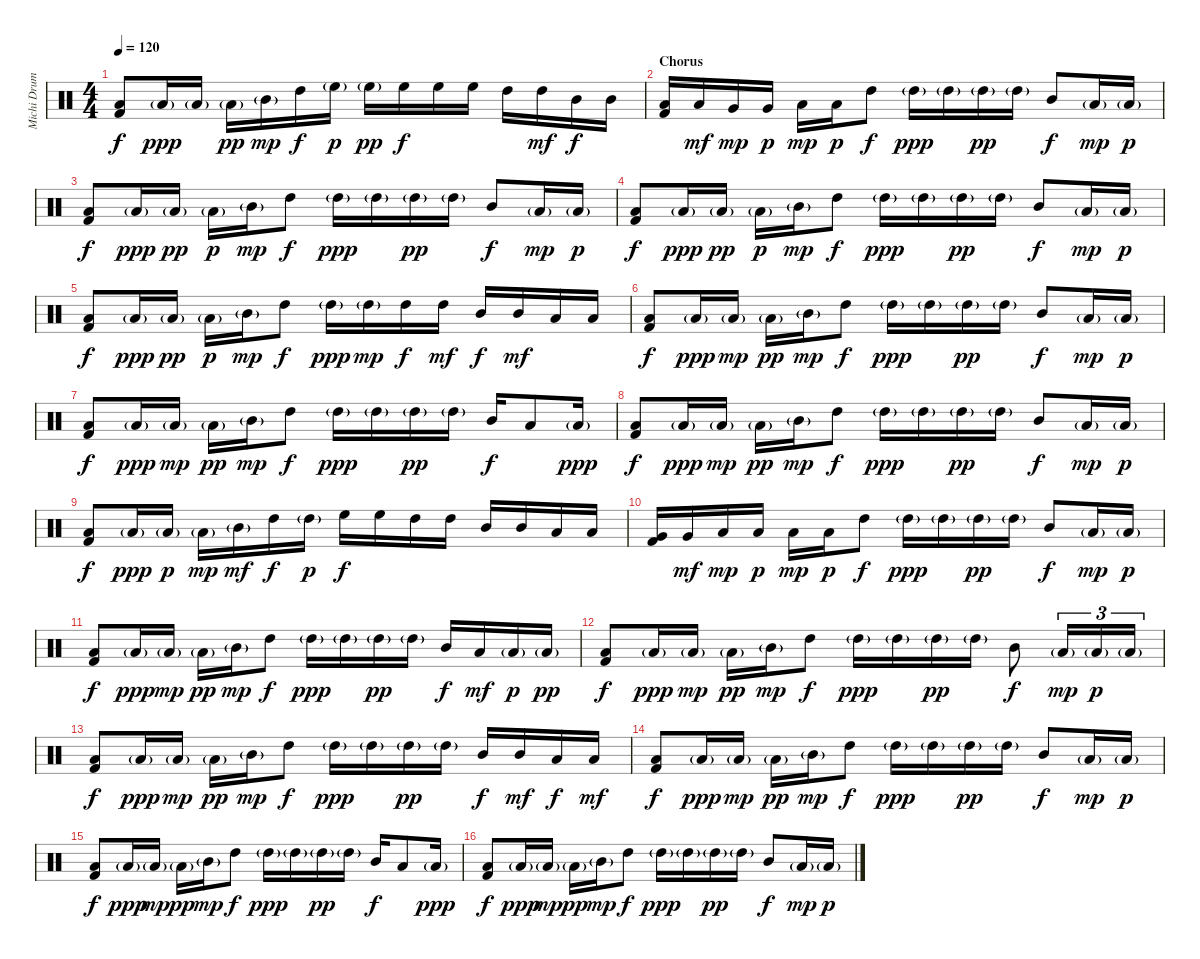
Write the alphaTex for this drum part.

\track ("Michi Drums" "Michi Drum") {instrument percussion}
\staff {score}
\articulation defaults
\ts (4 4)
\tempo 120
\clef neutral
\ks c
("Low Floor Tom (hit)" "Kick (hit) 2").8{dy f} "Low Floor Tom (hit)"{g}.16{dy ppp} "Low Tom (hit)"{g}.16 "Low Tom (hit)"{g}.16{dy pp} "Mid Tom (hit)"{g}.16{dy mp} "High Tom (hit)".16{dy f} "High Floor Tom (hit)"{g}.16{dy p} "High Floor Tom (hit)"{g}.16{dy pp} "High Floor Tom (hit)".16{dy f} "High Floor Tom (hit)".16 "High Floor Tom (hit)".16 "High Tom (hit)".16 "High Tom (hit)".16{dy mf} "Mid Tom (hit)".16{dy f} "Mid Tom (hit)".16 |
\section ("" "Chorus")
("Low Tom (hit)" "Kick (hit) 2").16 "Low Tom (hit)".16{dy mf} "Very Low Tom (hit)".16{dy mp} "Very Low Tom (hit)".16{dy p} "Low Floor Tom (hit)".16{dy mp} "Low Floor Tom (hit)".16{dy p} "High Tom (hit)".8{dy f} "High Tom (hit)"{g}.16{dy ppp} "High Tom (hit)"{g}.16 "High Tom (hit)"{g}.16{dy pp} "High Tom (hit)"{g}.16 "Mid Tom (hit)".8{dy f} "Low Tom (hit)"{g}.16{dy mp} "Low Tom (hit)"{g}.16{dy p} |
("Low Floor Tom (hit)" "Kick (hit) 2").8{dy f} "Low Floor Tom (hit)"{g}.16{dy ppp} "Low Tom (hit)"{g}.16{dy pp} "Low Tom (hit)"{g}.16{dy p} "Mid Tom (hit)"{g}.16{dy mp} "High Tom (hit)".8{dy f} "High Tom (hit)"{g}.16{dy ppp} "High Tom (hit)"{g}.16 "High Tom (hit)"{g}.16{dy pp} "High Tom (hit)"{g}.16 "Mid Tom (hit)".8{dy f} "Low Tom (hit)"{g}.16{dy mp} "Low Tom (hit)"{g}.16{dy p} |
("Low Floor Tom (hit)" "Kick (hit) 2").8{dy f} "Low Floor Tom (hit)"{g}.16{dy ppp} "Low Tom (hit)"{g}.16{dy pp} "Low Tom (hit)"{g}.16{dy p} "Mid Tom (hit)"{g}.16{dy mp} "High Tom (hit)".8{dy f} "High Tom (hit)"{g}.16{dy ppp} "High Tom (hit)"{g}.16 "High Tom (hit)"{g}.16{dy pp} "High Tom (hit)"{g}.16 "Mid Tom (hit)".8{dy f} "Low Tom (hit)"{g}.16{dy mp} "Low Tom (hit)"{g}.16{dy p} |
("Low Floor Tom (hit)" "Kick (hit) 2").8{dy f} "Low Floor Tom (hit)"{g}.16{dy ppp} "Low Tom (hit)"{g}.16{dy pp} "Low Tom (hit)"{g}.16{dy p} "Mid Tom (hit)"{g}.16{dy mp} "High Tom (hit)".8{dy f} "High Tom (hit)"{g}.16{dy ppp} "High Tom (hit)"{g}.16{dy mp} "High Tom (hit)".16{dy f} "High Tom (hit)".16{dy mf} "Mid Tom (hit)".16{dy f} "Mid Tom (hit)".16{dy mf} "Low Tom (hit)".16 "Low Tom (hit)".16 |
("Low Floor Tom (hit)" "Kick (hit) 2").8{dy f} "Low Floor Tom (hit)"{g}.16{dy ppp} "Low Tom (hit)"{g}.16{dy mp} "Low Tom (hit)"{g}.16{dy pp} "Mid Tom (hit)"{g}.16{dy mp} "High Tom (hit)".8{dy f} "High Tom (hit)"{g}.16{dy ppp} "High Tom (hit)"{g}.16 "High Tom (hit)"{g}.16{dy pp} "High Tom (hit)"{g}.16 "Mid Tom (hit)".8{dy f} "Low Tom (hit)"{g}.16{dy mp} "Low Tom (hit)"{g}.16{dy p} |
("Low Floor Tom (hit)" "Kick (hit) 2").8{dy f} "Low Floor Tom (hit)"{g}.16{dy ppp} "Low Tom (hit)"{g}.16{dy mp} "Low Tom (hit)"{g}.16{dy pp} "Mid Tom (hit)"{g}.16{dy mp} "High Tom (hit)".8{dy f} "High Tom (hit)"{g}.16{dy ppp} "High Tom (hit)"{g}.16 "High Tom (hit)"{g}.16{dy pp} "High Tom (hit)"{g}.16 "Mid Tom (hit)".16{dy f} "Low Floor Tom (hit)".8 "Low Floor Tom (hit)"{g}.16{dy ppp} |
("Low Floor Tom (hit)" "Kick (hit) 2").8{dy f} "Low Floor Tom (hit)"{g}.16{dy ppp} "Low Tom (hit)"{g}.16{dy mp} "Low Tom (hit)"{g}.16{dy pp} "Mid Tom (hit)"{g}.16{dy mp} "High Tom (hit)".8{dy f} "High Tom (hit)"{g}.16{dy ppp} "High Tom (hit)"{g}.16 "High Tom (hit)"{g}.16{dy pp} "High Tom (hit)"{g}.16 "Mid Tom (hit)".8{dy f} "Low Tom (hit)"{g}.16{dy mp} "Low Tom (hit)"{g}.16{dy p} |
("Low Floor Tom (hit)" "Kick (hit) 2").8{dy f} "Low Floor Tom (hit)"{g}.16{dy ppp} "Low Tom (hit)"{g}.16{dy p} "Low Tom (hit)"{g}.16{dy mp} "Mid Tom (hit)"{g}.16{dy mf} "High Tom (hit)".16{dy f} "High Tom (hit)"{g}.16{dy p} "High Floor Tom (hit)".16{dy f} "High Floor Tom (hit)".16 "High Tom (hit)".16 "High Tom (hit)".16 "Mid Tom (hit)".16 "Mid Tom (hit)".16 "Low Tom (hit)".16 "Low Tom (hit)".16 |
("Very Low Tom (hit)" "Kick (hit) 2").16 "Very Low Tom (hit)".16{dy mf} "Low Floor Tom (hit)".16{dy mp} "Low Floor Tom (hit)".16{dy p} "Low Floor Tom (hit)".16{dy mp} "Low Floor Tom (hit)".16{dy p} "High Tom (hit)".8{dy f} "High Tom (hit)"{g}.16{dy ppp} "High Tom (hit)"{g}.16 "High Tom (hit)"{g}.16{dy pp} "High Tom (hit)"{g}.16 "Mid Tom (hit)".8{dy f} "Low Tom (hit)"{g}.16{dy mp} "Low Tom (hit)"{g}.16{dy p} |
("Low Floor Tom (hit)" "Kick (hit) 2").8{dy f} "Low Floor Tom (hit)"{g}.16{dy ppp} "Low Tom (hit)"{g}.16{dy mp} "Low Tom (hit)"{g}.16{dy pp} "Mid Tom (hit)"{g}.16{dy mp} "High Tom (hit)".8{dy f} "High Tom (hit)"{g}.16{dy ppp} "High Tom (hit)"{g}.16 "High Tom (hit)"{g}.16{dy pp} "High Tom (hit)"{g}.16 "Mid Tom (hit)".16{dy f} "Low Tom (hit)".16{dy mf} "Low Tom (hit)"{g}.16{dy p} "Low Tom (hit)"{g}.16{dy pp} |
("Low Floor Tom (hit)" "Kick (hit) 2").8{dy f} "Low Floor Tom (hit)"{g}.16{dy ppp} "Low Tom (hit)"{g}.16{dy mp} "Low Tom (hit)"{g}.16{dy pp} "Mid Tom (hit)"{g}.16{dy mp} "High Tom (hit)".8{dy f} "High Tom (hit)"{g}.16{dy ppp} "High Tom (hit)"{g}.16 "High Tom (hit)"{g}.16{dy pp} "High Tom (hit)"{g}.16 "Mid Tom (hit)".8{dy f} "Low Tom (hit)"{g}.16{tu (3 2) dy mp} "Low Tom (hit)"{g}.16{tu (3 2) dy p} "Low Tom (hit)"{g}.16{tu (3 2)} |
("Low Floor Tom (hit)" "Kick (hit) 2").8{dy f} "Low Floor Tom (hit)"{g}.16{dy ppp} "Low Tom (hit)"{g}.16{dy mp} "Low Tom (hit)"{g}.16{dy pp} "Mid Tom (hit)"{g}.16{dy mp} "High Tom (hit)".8{dy f} "High Tom (hit)"{g}.16{dy ppp} "High Tom (hit)"{g}.16 "High Tom (hit)"{g}.16{dy pp} "High Tom (hit)"{g}.16 "Mid Tom (hit)".16{dy f} "Mid Tom (hit)".16{dy mf} "Low Tom (hit)".16{dy f} "Low Tom (hit)".16{dy mf} |
("Low Floor Tom (hit)" "Kick (hit) 2").8{dy f} "Low Floor Tom (hit)"{g}.16{dy ppp} "Low Tom (hit)"{g}.16{dy mp} "Low Tom (hit)"{g}.16{dy pp} "Mid Tom (hit)"{g}.16{dy mp} "High Tom (hit)".8{dy f} "High Tom (hit)"{g}.16{dy ppp} "High Tom (hit)"{g}.16 "High Tom (hit)"{g}.16{dy pp} "High Tom (hit)"{g}.16 "Mid Tom (hit)".8{dy f} "Low Tom (hit)"{g}.16{dy mp} "Low Tom (hit)"{g}.16{dy p} |
("Low Floor Tom (hit)" "Kick (hit) 2").8{dy f} "Low Floor Tom (hit)"{g}.16{dy ppp} "Low Tom (hit)"{g}.16{dy mp} "Low Tom (hit)"{g}.16{dy pp} "Mid Tom (hit)"{g}.16{dy mp} "High Tom (hit)".8{dy f} "High Tom (hit)"{g}.16{dy ppp} "High Tom (hit)"{g}.16 "High Tom (hit)"{g}.16{dy pp} "High Tom (hit)"{g}.16 "Mid Tom (hit)".16{dy f} "Low Floor Tom (hit)".8 "Low Floor Tom (hit)"{g}.16{dy ppp} |
("Low Floor Tom (hit)" "Kick (hit) 2").8{dy f} "Low Floor Tom (hit)"{g}.16{dy ppp} "Low Tom (hit)"{g}.16{dy mp} "Low Tom (hit)"{g}.16{dy pp} "Mid Tom (hit)"{g}.16{dy mp} "High Tom (hit)".8{dy f} "High Tom (hit)"{g}.16{dy ppp} "High Tom (hit)"{g}.16 "High Tom (hit)"{g}.16{dy pp} "High Tom (hit)"{g}.16 "Mid Tom (hit)".8{dy f} "Low Tom (hit)"{g}.16{dy mp} "Low Tom (hit)"{g}.16{dy p}
